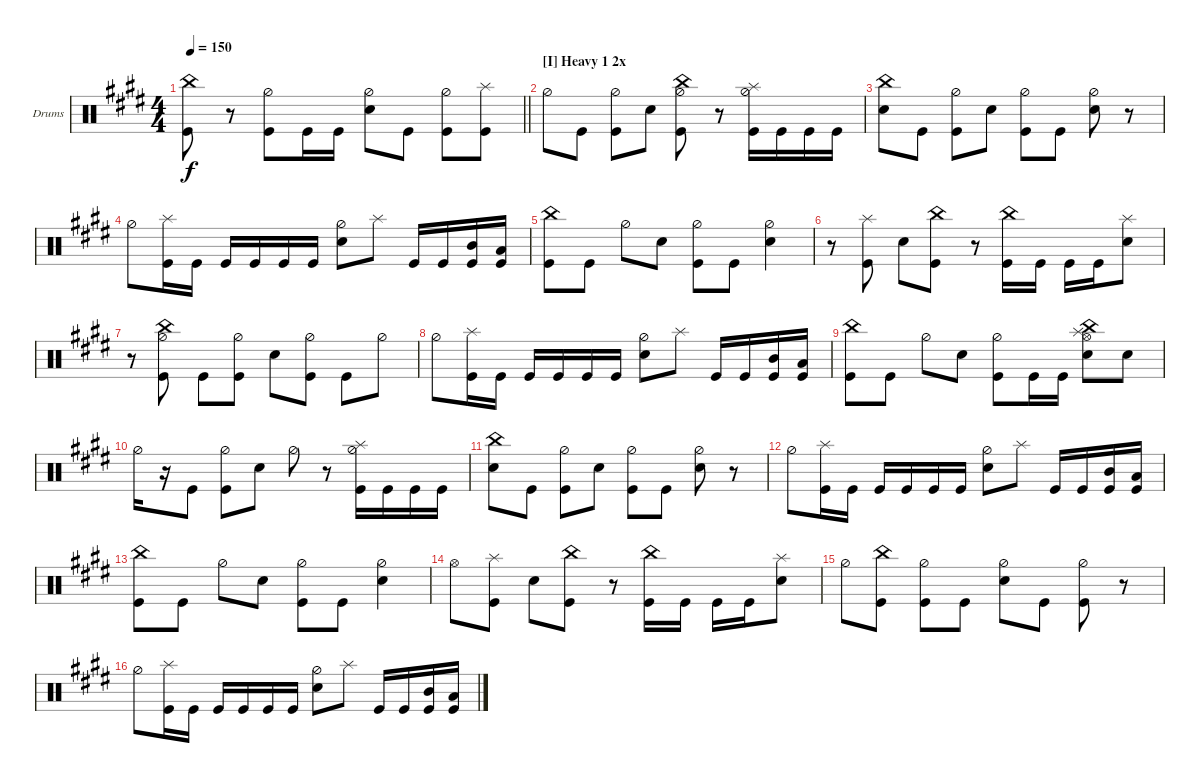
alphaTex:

\bracketExtendMode groupsimilarinstruments
\firstSystemTrackNameOrientation horizontal
\otherSystemsTrackNameOrientation horizontal
\track ("Drums" "Drums") {instrument percussion}
\staff {score}
\articulation defaults
\ts (4 4)
\tempo 150
\clef neutral
\scale
0.230769
\barLineRight lightlight
\ks e
("Kick (hit)" "China (hit)").8{dy f} r.8 ("Kick (hit)" "Hi-Hat (half)").8 "Kick (hit)".16 "Kick (hit)".16 ("Snare (hit) 2" "Hi-Hat (half)").8 "Kick (hit)".8 ("Kick (hit)" "Hi-Hat (half)").8 ("Kick (hit)" "Splash (hit)").8 |
\section ("I" "Heavy 1 2x")
\scale
0.230769 "Hi-Hat (half)".8 "Kick (hit)".8 ("Kick (hit)" "Hi-Hat (half)").8 "Snare (hit) 2".8 ("Hi-Hat (half)" "Kick (hit)" "China (hit)").8 r.8 ("Kick (hit)" "Hi-Hat (half)" "Splash (hit)").16 "Kick (hit)".16 "Kick (hit)".16 "Kick (hit)".16 |
\scale
0.333333 ("Snare (hit) 2" "China (hit)").8 "Kick (hit)".8 ("Kick (hit)" "Hi-Hat (half)").8 "Snare (hit) 2".8 ("Kick (hit)" "Hi-Hat (half)").8 "Kick (hit)".8 ("Snare (hit) 2" "Hi-Hat (half)").8 r.8 |
\scale
0.333333 "Hi-Hat (half)".8 ("Kick (hit)" "Splash (hit)").16 "Kick (hit)".16 "Kick (hit)".16 "Kick (hit)".16 "Kick (hit)".16 "Kick (hit)".16 ("Snare (hit) 2" "Hi-Hat (half)").8 "Splash (hit)".8 "Kick (hit)".16 "Kick (hit)".16 ("Kick (hit)" "Mid Tom (hit)").16 ("Kick (hit)" "Low Tom (hit)").16 |
\scale
0.333333 ("Kick (hit)" "China (hit)").8 "Kick (hit)".8 "Hi-Hat (half)".8 "Snare (hit) 2".8 ("Kick (hit)" "Hi-Hat (half)").8 "Kick (hit)".8 ("Snare (hit) 2" "Hi-Hat (half)").4 |
\scale
0.333333 r.8 ("Kick (hit)" "Splash (hit)").8 "Snare (hit) 2".8 ("Kick (hit)" "China (hit)").8 r.8 ("Kick (hit)" "China (hit)").16 "Kick (hit)".16 "Kick (hit)".16 "Kick (hit)".16 ("Snare (hit) 2" "Splash (hit)").8 |
\scale
0.333333 r.8 ("Kick (hit)" "Hi-Hat (half)" "China (hit)").8 "Kick (hit)".8 ("Hi-Hat (half)" "Kick (hit)").8 "Snare (hit) 2".8 ("Kick (hit)" "Hi-Hat (half)").8 "Kick (hit)".8 "Hi-Hat (half)".8 |
\scale
0.333333 "Hi-Hat (half)".8 ("Kick (hit)" "Splash (hit)").16 "Kick (hit)".16 "Kick (hit)".16 "Kick (hit)".16 "Kick (hit)".16 "Kick (hit)".16 ("Snare (hit) 2" "Hi-Hat (half)").8 "Splash (hit)".8 "Kick (hit)".16 "Kick (hit)".16 ("Kick (hit)" "Mid Tom (hit)").16 ("Kick (hit)" "Low Tom (hit)").16 |
\scale
0.333333 ("Kick (hit)" "China (hit)").8 "Kick (hit)".8 "Hi-Hat (half)".8 "Snare (hit) 2".8 ("Kick (hit)" "Hi-Hat (half)").8 "Kick (hit)".16 "Kick (hit)".16 ("Snare (hit) 2" "Hi-Hat (open)" "China (hit)" "Splash (hit)").8 "Snare (hit) 2".8 |
\scale
0.333333 "Hi-Hat (half)".16 r.16 "Kick (hit)".8 ("Kick (hit)" "Hi-Hat (half)").8 "Snare (hit) 2".8 "Hi-Hat (half)".8 r.8 ("Kick (hit)" "Hi-Hat (half)" "Splash (hit)").16 "Kick (hit)".16 "Kick (hit)".16 "Kick (hit)".16 |
\scale
0.333333 ("Snare (hit) 2" "China (hit)").8 "Kick (hit)".8 ("Kick (hit)" "Hi-Hat (half)").8 "Snare (hit) 2".8 ("Kick (hit)" "Hi-Hat (half)").8 "Kick (hit)".8 ("Snare (hit) 2" "Hi-Hat (half)").8 r.8 |
\scale
0.333333 "Hi-Hat (half)".8 ("Kick (hit)" "Splash (hit)").16 "Kick (hit)".16 "Kick (hit)".16 "Kick (hit)".16 "Kick (hit)".16 "Kick (hit)".16 ("Snare (hit) 2" "Hi-Hat (half)").8 "Splash (hit)".8 "Kick (hit)".16 "Kick (hit)".16 ("Kick (hit)" "Mid Tom (hit)").16 ("Kick (hit)" "Low Tom (hit)").16 |
\scale
0.333333 ("Kick (hit)" "China (hit)").8 "Kick (hit)".8 "Hi-Hat (half)".8 "Snare (hit) 2".8 ("Kick (hit)" "Hi-Hat (half)").8 "Kick (hit)".8 ("Snare (hit) 2" "Hi-Hat (half)").4 |
\scale
0.333333 "Hi-Hat (open)".8 ("Kick (hit)" "Splash (hit)").8 "Snare (hit) 2".8 ("Kick (hit)" "China (hit)").8 r.8 ("Kick (hit)" "China (hit)").16 "Kick (hit)".16 "Kick (hit)".16 "Kick (hit)".16 ("Snare (hit) 2" "Splash (hit)").8 |
\scale
0.333333 "Hi-Hat (half)".8 ("Kick (hit)" "China (hit)").8 ("Kick (hit)" "Hi-Hat (half)").8 "Kick (hit)".8 ("Snare (hit) 2" "Hi-Hat (half)").8 "Kick (hit)".8 ("Kick (hit)" "Hi-Hat (half)").8 r.8 |
\scale
0.333333 "Hi-Hat (half)".8 ("Kick (hit)" "Splash (hit)").16 "Kick (hit)".16 "Kick (hit)".16 "Kick (hit)".16 "Kick (hit)".16 "Kick (hit)".16 ("Snare (hit) 2" "Hi-Hat (half)").8 "Splash (hit)".8 "Kick (hit)".16 "Kick (hit)".16 ("Kick (hit)" "Mid Tom (hit)").16 ("Kick (hit)" "Low Tom (hit)").16
